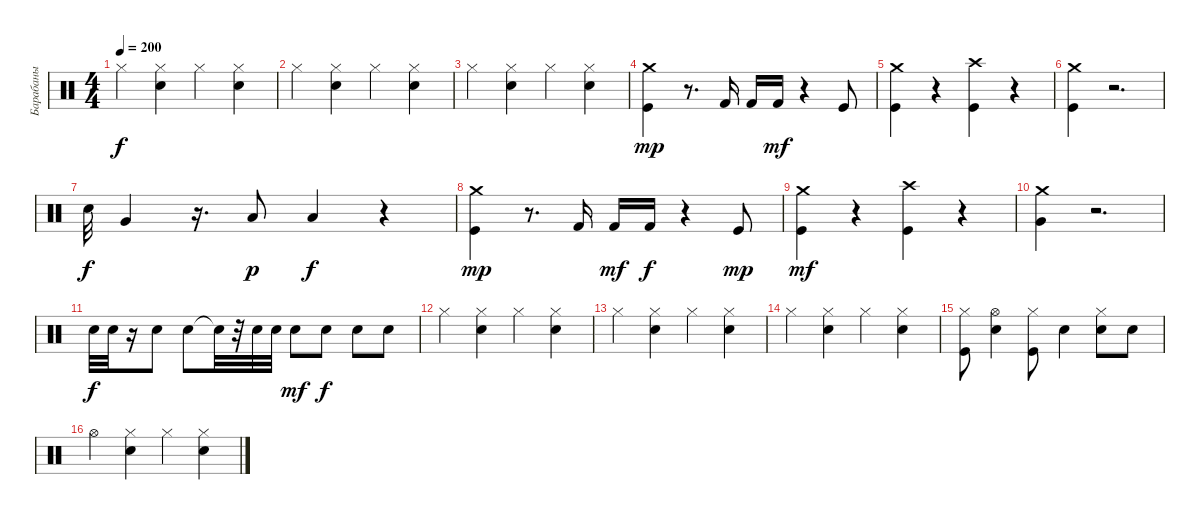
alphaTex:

\track ("Барабаны" "Барабаны") {instrument percussion}
\staff {score}
\articulation defaults
\ts (4 4)
\tempo 200
\clef neutral
\ks c "Hi-Hat (closed)".4{dy f}
("Snare (hit) 2" "Hi-Hat (closed)").4 "Hi-Hat (closed)".4 ("Snare (hit) 2" "Hi-Hat (closed)").4 |
"Hi-Hat (closed)".4 ("Snare (hit) 2" "Hi-Hat (closed)").4 "Hi-Hat (closed)".4 ("Snare (hit) 2" "Hi-Hat (closed)").4 |
"Hi-Hat (closed)".4 ("Snare (hit) 2" "Hi-Hat (closed)").4 "Hi-Hat (closed)".4 ("Snare (hit) 2" "Hi-Hat (closed)").4 |
("Crash medium (hit)" "Kick (hit)").4{dy mp} r.8{d} "Kick (hit) 2".16 "Kick (hit) 2".16 "Kick (hit) 2".16{dy mf} r.4 "Kick (hit)".8 |
("Kick (hit)" "Crash medium (hit)").4 r.4 ("Crash high (hit)" "Kick (hit)").4 r.4 |
("Crash medium (hit)" "Kick (hit)").4 r.2{d} |
"Snare (hit) 2".32{dy f} "Very Low Tom (hit)".4 r.16{d} "Low Tom (hit)".8{dy p} "Low Floor Tom (hit)".4{dy f} r.4 |
("Crash medium (hit)" "Kick (hit)").4{dy mp} r.8{d} "Kick (hit) 2".16 "Kick (hit) 2".16{dy mf} "Kick (hit) 2".16{dy f} r.4 "Kick (hit)".8{dy mp} |
("Kick (hit)" "Crash medium (hit)").4{dy mf} r.4 ("Crash high (hit)" "Kick (hit)").4 r.4 |
("Crash medium (hit)" "Very Low Tom (hit)").4 r.2{d} |
"Electric Snare (hit)".32{dy f} "Electric Snare (hit)".32 r.16 "Electric Snare (hit)".8 "Electric Snare (hit)".8 "Snare (hit)"{t}.32 r.32 "Electric Snare (hit)".32 "Electric Snare (hit)".32 "Electric Snare (hit)".8{dy mf} "Electric Snare (hit)".8{dy f} "Electric Snare (hit)".8 "Electric Snare (hit)".8 |
"Hi-Hat (closed)".4 ("Snare (hit) 2" "Hi-Hat (closed)").4 "Hi-Hat (closed)".4 ("Snare (hit) 2" "Hi-Hat (closed)").4 |
"Hi-Hat (closed)".4 ("Snare (hit) 2" "Hi-Hat (closed)").4 "Hi-Hat (closed)".4 ("Snare (hit) 2" "Hi-Hat (closed)").4 |
"Hi-Hat (closed)".4 ("Snare (hit) 2" "Hi-Hat (closed)").4 "Hi-Hat (closed)".4 ("Snare (hit) 2" "Hi-Hat (closed)").4 |
("Kick (hit)" "Hi-Hat (closed)").8 ("Hi-Hat (open)" "Electric Snare (hit)").4 ("Kick (hit)" "Hi-Hat (closed)").8 "Electric Snare (hit)".4 ("Electric Snare (hit)" "Hi-Hat (closed)").8 "Electric Snare (hit)".8 |
"Hi-Hat (open)".4 ("Snare (hit) 2" "Hi-Hat (closed)").4 "Hi-Hat (closed)".4 ("Snare (hit) 2" "Hi-Hat (closed)").4
